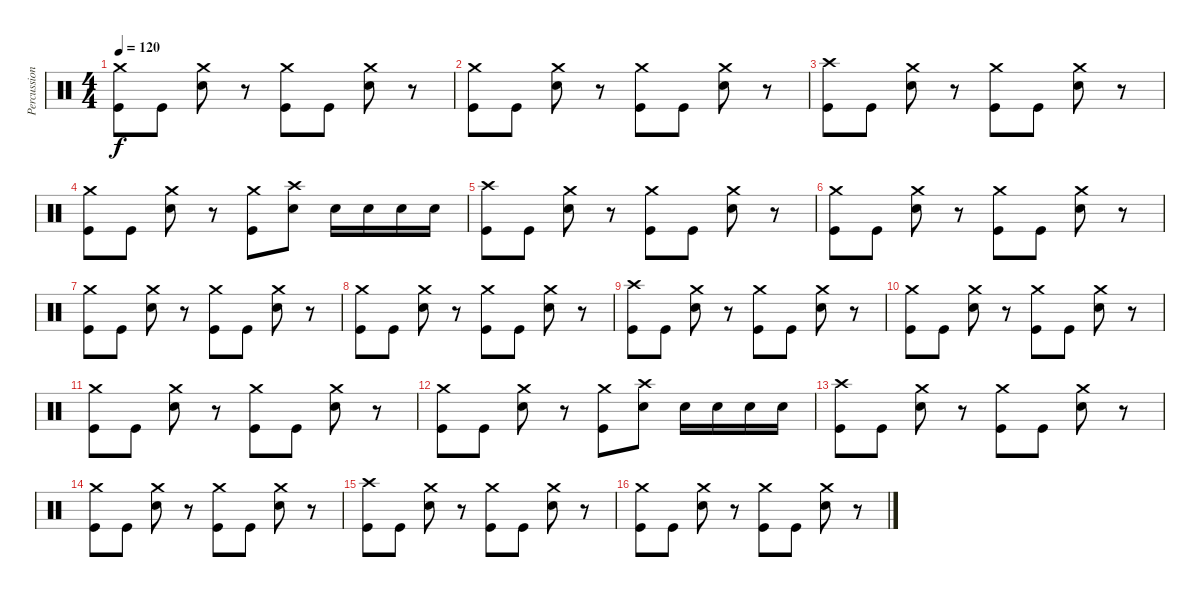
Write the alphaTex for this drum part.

\track ("Percussion" "Percussion") {instrument percussion}
\staff {score}
\articulation defaults
\ts (4 4)
\tempo 120
\clef neutral
\ks c
("Crash medium (hit)" "Kick (hit)").8{dy f} "Kick (hit)".8 ("Crash medium (hit)" "Electric Snare (hit)").8 r.8 ("Crash medium (hit)" "Kick (hit)").8 "Kick (hit)".8 ("Crash medium (hit)" "Electric Snare (hit)").8 r.8 |
("Crash medium (hit)" "Kick (hit)").8 "Kick (hit)".8 ("Crash medium (hit)" "Electric Snare (hit)").8 r.8 ("Crash medium (hit)" "Kick (hit)").8 "Kick (hit)".8 ("Crash medium (hit)" "Electric Snare (hit)").8 r.8 |
("Crash high (hit)" "Kick (hit)").8 "Kick (hit)".8 ("Crash medium (hit)" "Electric Snare (hit)").8 r.8 ("Crash medium (hit)" "Kick (hit)").8 "Kick (hit)".8 ("Crash medium (hit)" "Electric Snare (hit)").8 r.8 |
("Crash medium (hit)" "Kick (hit)").8 "Kick (hit)".8 ("Crash medium (hit)" "Electric Snare (hit)").8 r.8 ("Crash medium (hit)" "Kick (hit)").8 ("Crash high (hit)" "Electric Snare (hit)").8 "Electric Snare (hit)".16 "Electric Snare (hit)".16 "Electric Snare (hit)".16 "Electric Snare (hit)".16 |
("Crash high (hit)" "Kick (hit)").8 "Kick (hit)".8 ("Crash medium (hit)" "Electric Snare (hit)").8 r.8 ("Crash medium (hit)" "Kick (hit)").8 "Kick (hit)".8 ("Crash medium (hit)" "Electric Snare (hit)").8 r.8 |
("Crash medium (hit)" "Kick (hit)").8 "Kick (hit)".8 ("Crash medium (hit)" "Electric Snare (hit)").8 r.8 ("Crash medium (hit)" "Kick (hit)").8 "Kick (hit)".8 ("Crash medium (hit)" "Electric Snare (hit)").8 r.8 |
("Crash medium (hit)" "Kick (hit)").8 "Kick (hit)".8 ("Crash medium (hit)" "Electric Snare (hit)").8 r.8 ("Crash medium (hit)" "Kick (hit)").8 "Kick (hit)".8 ("Crash medium (hit)" "Electric Snare (hit)").8 r.8 |
("Crash medium (hit)" "Kick (hit)").8 "Kick (hit)".8 ("Crash medium (hit)" "Electric Snare (hit)").8 r.8 ("Crash medium (hit)" "Kick (hit)").8 "Kick (hit)".8 ("Crash medium (hit)" "Electric Snare (hit)").8 r.8 |
("Crash high (hit)" "Kick (hit)").8 "Kick (hit)".8 ("Crash medium (hit)" "Electric Snare (hit)").8 r.8 ("Crash medium (hit)" "Kick (hit)").8 "Kick (hit)".8 ("Crash medium (hit)" "Electric Snare (hit)").8 r.8 |
("Crash medium (hit)" "Kick (hit)").8 "Kick (hit)".8 ("Crash medium (hit)" "Electric Snare (hit)").8 r.8 ("Crash medium (hit)" "Kick (hit)").8 "Kick (hit)".8 ("Crash medium (hit)" "Electric Snare (hit)").8 r.8 |
("Crash medium (hit)" "Kick (hit)").8 "Kick (hit)".8 ("Crash medium (hit)" "Electric Snare (hit)").8 r.8 ("Crash medium (hit)" "Kick (hit)").8 "Kick (hit)".8 ("Crash medium (hit)" "Electric Snare (hit)").8 r.8 |
("Crash medium (hit)" "Kick (hit)").8 "Kick (hit)".8 ("Crash medium (hit)" "Electric Snare (hit)").8 r.8 ("Crash medium (hit)" "Kick (hit)").8 ("Crash high (hit)" "Electric Snare (hit)").8 "Electric Snare (hit)".16 "Electric Snare (hit)".16 "Electric Snare (hit)".16 "Electric Snare (hit)".16 |
("Crash high (hit)" "Kick (hit)").8 "Kick (hit)".8 ("Crash medium (hit)" "Electric Snare (hit)").8 r.8 ("Crash medium (hit)" "Kick (hit)").8 "Kick (hit)".8 ("Crash medium (hit)" "Electric Snare (hit)").8 r.8 |
("Crash medium (hit)" "Kick (hit)").8 "Kick (hit)".8 ("Crash medium (hit)" "Electric Snare (hit)").8 r.8 ("Crash medium (hit)" "Kick (hit)").8 "Kick (hit)".8 ("Crash medium (hit)" "Electric Snare (hit)").8 r.8 |
("Crash high (hit)" "Kick (hit)").8 "Kick (hit)".8 ("Crash medium (hit)" "Electric Snare (hit)").8 r.8 ("Crash medium (hit)" "Kick (hit)").8 "Kick (hit)".8 ("Crash medium (hit)" "Electric Snare (hit)").8 r.8 |
("Crash medium (hit)" "Kick (hit)").8 "Kick (hit)".8 ("Crash medium (hit)" "Electric Snare (hit)").8 r.8 ("Crash medium (hit)" "Kick (hit)").8 "Kick (hit)".8 ("Crash medium (hit)" "Electric Snare (hit)").8 r.8
